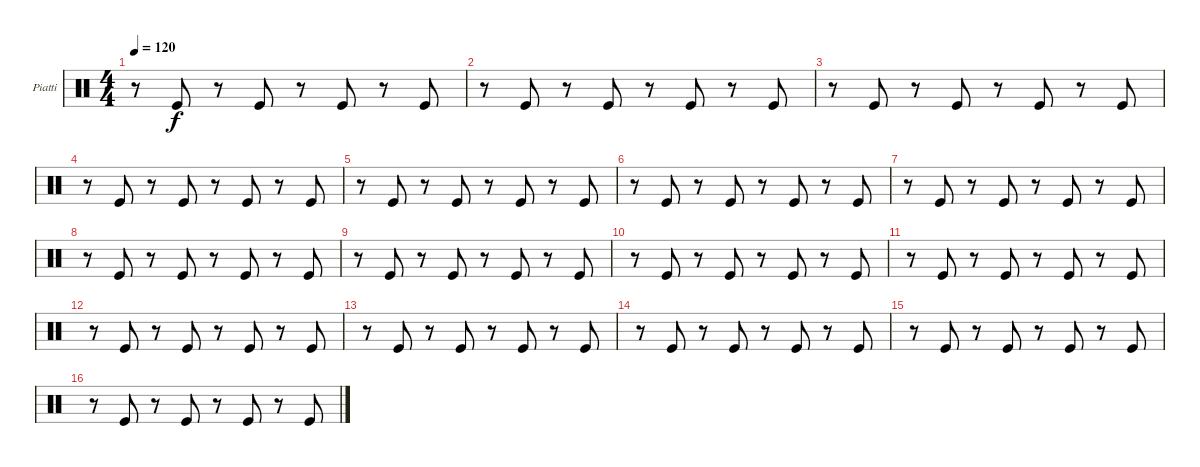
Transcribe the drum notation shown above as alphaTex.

\defaultSystemsLayout 4
\bracketExtendMode groupsimilarinstruments
\firstSystemTrackNameOrientation horizontal
\otherSystemsTrackNameOrientation horizontal
\track ("Piatti" "Piatti") {instrument percussion}
\staff {score}
\articulation defaults
\ts (4 4)
\tempo 120
\clef neutral
\scale
0.474178
\ks c
r.8{dy f} "Kick (hit)".8 r.8 "Kick (hit)".8 r.8 "Kick (hit)".8 r.8 "Kick (hit)".8 |
\scale
0.262911 r.8 "Kick (hit)".8 r.8 "Kick (hit)".8 r.8 "Kick (hit)".8 r.8 "Kick (hit)".8 |
\scale
0.262911 r.8 "Kick (hit)".8 r.8 "Kick (hit)".8 r.8 "Kick (hit)".8 r.8 "Kick (hit)".8 |
r.8 "Kick (hit)".8 r.8 "Kick (hit)".8 r.8 "Kick (hit)".8 r.8 "Kick (hit)".8 |
r.8 "Kick (hit)".8 r.8 "Kick (hit)".8 r.8 "Kick (hit)".8 r.8 "Kick (hit)".8 |
r.8 "Kick (hit)".8 r.8 "Kick (hit)".8 r.8 "Kick (hit)".8 r.8 "Kick (hit)".8 |
r.8 "Kick (hit)".8 r.8 "Kick (hit)".8 r.8 "Kick (hit)".8 r.8 "Kick (hit)".8 |
r.8 "Kick (hit)".8 r.8 "Kick (hit)".8 r.8 "Kick (hit)".8 r.8 "Kick (hit)".8 |
r.8 "Kick (hit)".8 r.8 "Kick (hit)".8 r.8 "Kick (hit)".8 r.8 "Kick (hit)".8 |
r.8 "Kick (hit)".8 r.8 "Kick (hit)".8 r.8 "Kick (hit)".8 r.8 "Kick (hit)".8 |
r.8 "Kick (hit)".8 r.8 "Kick (hit)".8 r.8 "Kick (hit)".8 r.8 "Kick (hit)".8 |
r.8 "Kick (hit)".8 r.8 "Kick (hit)".8 r.8 "Kick (hit)".8 r.8 "Kick (hit)".8 |
r.8 "Kick (hit)".8 r.8 "Kick (hit)".8 r.8 "Kick (hit)".8 r.8 "Kick (hit)".8 |
r.8 "Kick (hit)".8 r.8 "Kick (hit)".8 r.8 "Kick (hit)".8 r.8 "Kick (hit)".8 |
r.8 "Kick (hit)".8 r.8 "Kick (hit)".8 r.8 "Kick (hit)".8 r.8 "Kick (hit)".8 |
r.8 "Kick (hit)".8 r.8 "Kick (hit)".8 r.8 "Kick (hit)".8 r.8 "Kick (hit)".8
